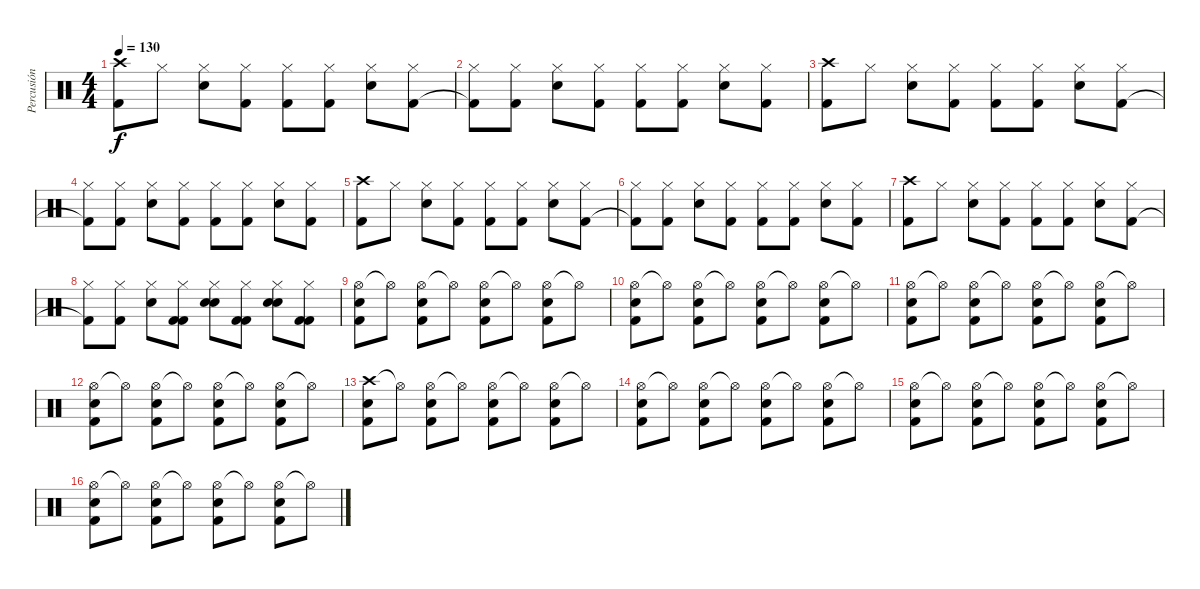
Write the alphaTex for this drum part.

\track ("Percusión" "Percusión") {instrument percussion}
\staff {score}
\articulation defaults
\ts (4 4)
\tempo 130
\clef neutral
\ks c
("Crash high (hit)" "Kick (hit) 2").8{dy f} "Hi-Hat (closed)".8 ("Hi-Hat (closed)" "Snare (hit) 2").8 ("Hi-Hat (closed)" "Kick (hit) 2").8 ("Hi-Hat (closed)" "Kick (hit) 2").8 ("Hi-Hat (closed)" "Kick (hit) 2").8 ("Hi-Hat (closed)" "Snare (hit) 2").8 ("Hi-Hat (closed)" "Kick (hit) 2").8 |
("Hi-Hat (closed)" "Kick (hit) 2"{t}).8 ("Hi-Hat (closed)" "Kick (hit) 2").8 ("Hi-Hat (closed)" "Snare (hit) 2").8 ("Hi-Hat (closed)" "Kick (hit) 2").8 ("Hi-Hat (closed)" "Kick (hit) 2").8 ("Hi-Hat (closed)" "Kick (hit) 2").8 ("Hi-Hat (closed)" "Snare (hit) 2").8 ("Hi-Hat (closed)" "Kick (hit) 2").8 |
("Crash high (hit)" "Kick (hit) 2").8 "Hi-Hat (closed)".8 ("Hi-Hat (closed)" "Snare (hit) 2").8 ("Hi-Hat (closed)" "Kick (hit) 2").8 ("Hi-Hat (closed)" "Kick (hit) 2").8 ("Hi-Hat (closed)" "Kick (hit) 2").8 ("Hi-Hat (closed)" "Snare (hit) 2").8 ("Hi-Hat (closed)" "Kick (hit) 2").8 |
("Hi-Hat (closed)" "Kick (hit) 2"{t}).8 ("Hi-Hat (closed)" "Kick (hit) 2").8 ("Hi-Hat (closed)" "Snare (hit) 2").8 ("Hi-Hat (closed)" "Kick (hit) 2").8 ("Hi-Hat (closed)" "Kick (hit) 2").8 ("Hi-Hat (closed)" "Kick (hit) 2").8 ("Hi-Hat (closed)" "Snare (hit) 2").8 ("Hi-Hat (closed)" "Kick (hit) 2").8 |
("Crash high (hit)" "Kick (hit) 2").8 "Hi-Hat (closed)".8 ("Hi-Hat (closed)" "Snare (hit) 2").8 ("Hi-Hat (closed)" "Kick (hit) 2").8 ("Hi-Hat (closed)" "Kick (hit) 2").8 ("Hi-Hat (closed)" "Kick (hit) 2").8 ("Hi-Hat (closed)" "Snare (hit) 2").8 ("Hi-Hat (closed)" "Kick (hit) 2").8 |
("Hi-Hat (closed)" "Kick (hit) 2"{t}).8 ("Hi-Hat (closed)" "Kick (hit) 2").8 ("Hi-Hat (closed)" "Snare (hit) 2").8 ("Hi-Hat (closed)" "Kick (hit) 2").8 ("Hi-Hat (closed)" "Kick (hit) 2").8 ("Hi-Hat (closed)" "Kick (hit) 2").8 ("Hi-Hat (closed)" "Snare (hit) 2").8 ("Hi-Hat (closed)" "Kick (hit) 2").8 |
("Crash high (hit)" "Kick (hit) 2").8 "Hi-Hat (closed)".8 ("Hi-Hat (closed)" "Snare (hit) 2").8 ("Hi-Hat (closed)" "Kick (hit) 2").8 ("Hi-Hat (closed)" "Kick (hit) 2").8 ("Hi-Hat (closed)" "Kick (hit) 2").8 ("Hi-Hat (closed)" "Snare (hit) 2").8 ("Hi-Hat (closed)" "Kick (hit) 2").8 |
("Hi-Hat (closed)" "Kick (hit) 2"{t}).8 ("Hi-Hat (closed)" "Kick (hit) 2").8 ("Hi-Hat (closed)" "Snare (hit) 2").8 ("Hi-Hat (closed)" "Kick (hit) 2" "Kick (hit) 2").8 ("Hi-Hat (closed)" "Snare (hit) 2" "Snare (hit) 2").8 ("Hi-Hat (closed)" "Kick (hit) 2" "Kick (hit) 2").8 ("Hi-Hat (closed)" "Snare (hit) 2" "Snare (hit) 2").8 ("Hi-Hat (closed)" "Kick (hit) 2" "Kick (hit) 2").8 |
("Hi-Hat (open)" "Snare (hit) 2" "Kick (hit) 2").8 "Hi-Hat (open)"{t}.8 ("Hi-Hat (open)" "Snare (hit) 2" "Kick (hit) 2").8 "Hi-Hat (open)"{t}.8 ("Hi-Hat (open)" "Snare (hit) 2" "Kick (hit) 2").8 "Hi-Hat (open)"{t}.8 ("Hi-Hat (open)" "Snare (hit) 2" "Kick (hit) 2").8 "Hi-Hat (open)"{t}.8 |
("Hi-Hat (open)" "Snare (hit) 2" "Kick (hit) 2").8 "Hi-Hat (open)"{t}.8 ("Hi-Hat (open)" "Snare (hit) 2" "Kick (hit) 2").8 "Hi-Hat (open)"{t}.8 ("Hi-Hat (open)" "Snare (hit) 2" "Kick (hit) 2").8 "Hi-Hat (open)"{t}.8 ("Hi-Hat (open)" "Snare (hit) 2" "Kick (hit) 2").8 "Hi-Hat (open)"{t}.8 |
("Hi-Hat (open)" "Snare (hit) 2" "Kick (hit) 2").8 "Hi-Hat (open)"{t}.8 ("Hi-Hat (open)" "Snare (hit) 2" "Kick (hit) 2").8 "Hi-Hat (open)"{t}.8 ("Hi-Hat (open)" "Snare (hit) 2" "Kick (hit) 2").8 "Hi-Hat (open)"{t}.8 ("Hi-Hat (open)" "Snare (hit) 2" "Kick (hit) 2").8 "Hi-Hat (open)"{t}.8 |
("Hi-Hat (open)" "Snare (hit) 2" "Kick (hit) 2").8 "Hi-Hat (open)"{t}.8 ("Hi-Hat (open)" "Snare (hit) 2" "Kick (hit) 2").8 "Hi-Hat (open)"{t}.8 ("Hi-Hat (open)" "Snare (hit) 2" "Kick (hit) 2").8 "Hi-Hat (open)"{t}.8 ("Hi-Hat (open)" "Snare (hit) 2" "Kick (hit) 2").8 "Hi-Hat (open)"{t}.8 |
("Crash high (hit)" "Snare (hit) 2" "Kick (hit) 2").8 "Hi-Hat (open)"{t}.8 ("Hi-Hat (open)" "Snare (hit) 2" "Kick (hit) 2").8 "Hi-Hat (open)"{t}.8 ("Hi-Hat (open)" "Snare (hit) 2" "Kick (hit) 2").8 "Hi-Hat (open)"{t}.8 ("Hi-Hat (open)" "Snare (hit) 2" "Kick (hit) 2").8 "Hi-Hat (open)"{t}.8 |
("Hi-Hat (open)" "Snare (hit) 2" "Kick (hit) 2").8 "Hi-Hat (open)"{t}.8 ("Hi-Hat (open)" "Snare (hit) 2" "Kick (hit) 2").8 "Hi-Hat (open)"{t}.8 ("Hi-Hat (open)" "Snare (hit) 2" "Kick (hit) 2").8 "Hi-Hat (open)"{t}.8 ("Hi-Hat (open)" "Snare (hit) 2" "Kick (hit) 2").8 "Hi-Hat (open)"{t}.8 |
("Hi-Hat (open)" "Snare (hit) 2" "Kick (hit) 2").8 "Hi-Hat (open)"{t}.8 ("Hi-Hat (open)" "Snare (hit) 2" "Kick (hit) 2").8 "Hi-Hat (open)"{t}.8 ("Hi-Hat (open)" "Snare (hit) 2" "Kick (hit) 2").8 "Hi-Hat (open)"{t}.8 ("Hi-Hat (open)" "Snare (hit) 2" "Kick (hit) 2").8 "Hi-Hat (open)"{t}.8 |
("Hi-Hat (open)" "Snare (hit) 2" "Kick (hit) 2").8 "Hi-Hat (open)"{t}.8 ("Hi-Hat (open)" "Snare (hit) 2" "Kick (hit) 2").8 "Hi-Hat (open)"{t}.8 ("Hi-Hat (open)" "Snare (hit) 2" "Kick (hit) 2").8 "Hi-Hat (open)"{t}.8 ("Hi-Hat (open)" "Snare (hit) 2" "Kick (hit) 2").8 "Hi-Hat (open)"{t}.8
